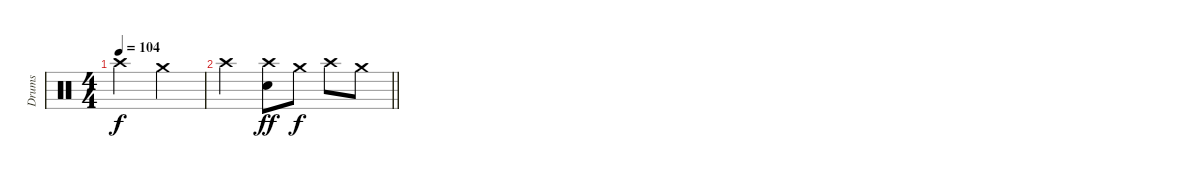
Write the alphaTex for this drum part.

\track ("Drums" "Drums") {instrument percussion}
\staff {score}
\articulation defaults
\ts (4 4)
\tempo 104
\clef neutral
\ks c "Crash high (hit)".2{dy f} "Crash medium (hit)".2
|
\barLineRight lightlight "Crash high (hit)".2
("Crash high (hit)" "Snare (hit) 2").8{dy ff} "Crash medium (hit)".8{dy f} "Crash high (hit)".8 "Crash medium (hit)".8
